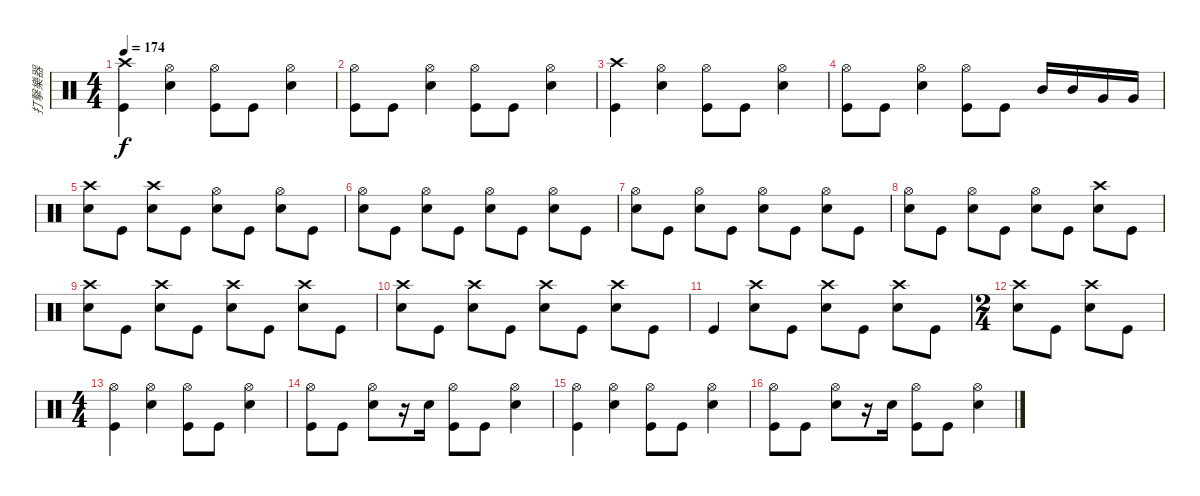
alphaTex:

\track ("打擊樂器" "打擊樂器") {instrument percussion}
\staff {score}
\articulation defaults
\ts (4 4)
\tempo 174
\clef neutral
\ks c
("Crash high (hit)" "Kick (hit)").4{dy f} ("Hi-Hat (open)" "Snare (hit) 2").4 ("Kick (hit)" "Hi-Hat (open)").8 "Kick (hit)".8 ("Hi-Hat (open)" "Snare (hit) 2").4 |
("Hi-Hat (open)" "Kick (hit)").8 "Kick (hit)".8 ("Hi-Hat (open)" "Snare (hit) 2").4 ("Hi-Hat (open)" "Kick (hit)").8 "Kick (hit)".8 ("Hi-Hat (open)" "Snare (hit) 2").4 |
("Crash high (hit)" "Kick (hit)").4 ("Hi-Hat (open)" "Snare (hit) 2").4 ("Kick (hit)" "Hi-Hat (open)").8 "Kick (hit)".8 ("Hi-Hat (open)" "Snare (hit) 2").4 |
("Hi-Hat (open)" "Kick (hit)").8 "Kick (hit)".8 ("Hi-Hat (open)" "Snare (hit) 2").4 ("Hi-Hat (open)" "Kick (hit)").8 "Kick (hit)".8 "Mid Tom (hit)".16 "Mid Tom (hit)".16 "Very Low Tom (hit)".16 "Very Low Tom (hit)".16 |
("Crash high (hit)" "Snare (hit) 2").8 "Kick (hit)".8 ("Crash high (hit)" "Snare (hit) 2").8 "Kick (hit)".8 ("Hi-Hat (open)" "Snare (hit) 2").8 "Kick (hit)".8 ("Hi-Hat (open)" "Snare (hit) 2").8 "Kick (hit)".8 |
("Hi-Hat (open)" "Snare (hit) 2").8 "Kick (hit)".8 ("Hi-Hat (open)" "Snare (hit) 2").8 "Kick (hit)".8 ("Hi-Hat (open)" "Snare (hit) 2").8 "Kick (hit)".8 ("Hi-Hat (open)" "Snare (hit) 2").8 "Kick (hit)".8 |
("Hi-Hat (open)" "Snare (hit) 2").8 "Kick (hit)".8 ("Hi-Hat (open)" "Snare (hit) 2").8 "Kick (hit)".8 ("Hi-Hat (open)" "Snare (hit) 2").8 "Kick (hit)".8 ("Hi-Hat (open)" "Snare (hit) 2").8 "Kick (hit)".8 |
("Hi-Hat (open)" "Snare (hit) 2").8 "Kick (hit)".8 ("Hi-Hat (open)" "Snare (hit) 2").8 "Kick (hit)".8 ("Hi-Hat (open)" "Snare (hit) 2").8 "Kick (hit)".8 ("Crash high (hit)" "Snare (hit) 2").8 "Kick (hit)".8 |
("Crash high (hit)" "Snare (hit) 2").8 "Kick (hit)".8 ("Crash high (hit)" "Snare (hit) 2").8 "Kick (hit)".8 ("Crash high (hit)" "Snare (hit) 2").8 "Kick (hit)".8 ("Crash high (hit)" "Snare (hit) 2").8 "Kick (hit)".8 |
("Crash high (hit)" "Snare (hit) 2").8 "Kick (hit)".8 ("Crash high (hit)" "Snare (hit) 2").8 "Kick (hit)".8 ("Crash high (hit)" "Snare (hit) 2").8 "Kick (hit)".8 ("Crash high (hit)" "Snare (hit) 2").8 "Kick (hit)".8 |
"Kick (hit)".4 ("Crash high (hit)" "Snare (hit) 2").8 "Kick (hit)".8 ("Crash high (hit)" "Snare (hit) 2").8 "Kick (hit)".8 ("Crash high (hit)" "Snare (hit) 2").8 "Kick (hit)".8 |
\ts (2 4)
("Crash high (hit)" "Snare (hit) 2").8 "Kick (hit)".8 ("Crash high (hit)" "Snare (hit) 2").8 "Kick (hit)".8 |
\ts (4 4)
("Hi-Hat (open)" "Kick (hit)").4 ("Hi-Hat (open)" "Snare (hit) 2").4 ("Hi-Hat (open)" "Kick (hit)").8 "Kick (hit)".8 ("Hi-Hat (open)" "Snare (hit) 2").4 |
("Hi-Hat (open)" "Kick (hit)").8 "Kick (hit)".8 ("Hi-Hat (open)" "Snare (hit) 2").8 r.16 "Snare (hit) 2".16 ("Hi-Hat (open)" "Kick (hit)").8 "Kick (hit)".8 ("Hi-Hat (open)" "Snare (hit) 2").4 |
("Hi-Hat (open)" "Kick (hit)").4 ("Hi-Hat (open)" "Snare (hit) 2").4 ("Kick (hit)" "Hi-Hat (open)").8 "Kick (hit)".8 ("Hi-Hat (open)" "Snare (hit) 2").4 |
("Hi-Hat (open)" "Kick (hit)").8 "Kick (hit)".8 ("Hi-Hat (open)" "Snare (hit) 2").8 r.16 "Snare (hit) 2".16 ("Hi-Hat (open)" "Kick (hit)").8 "Kick (hit)".8 ("Hi-Hat (open)" "Snare (hit) 2").4
